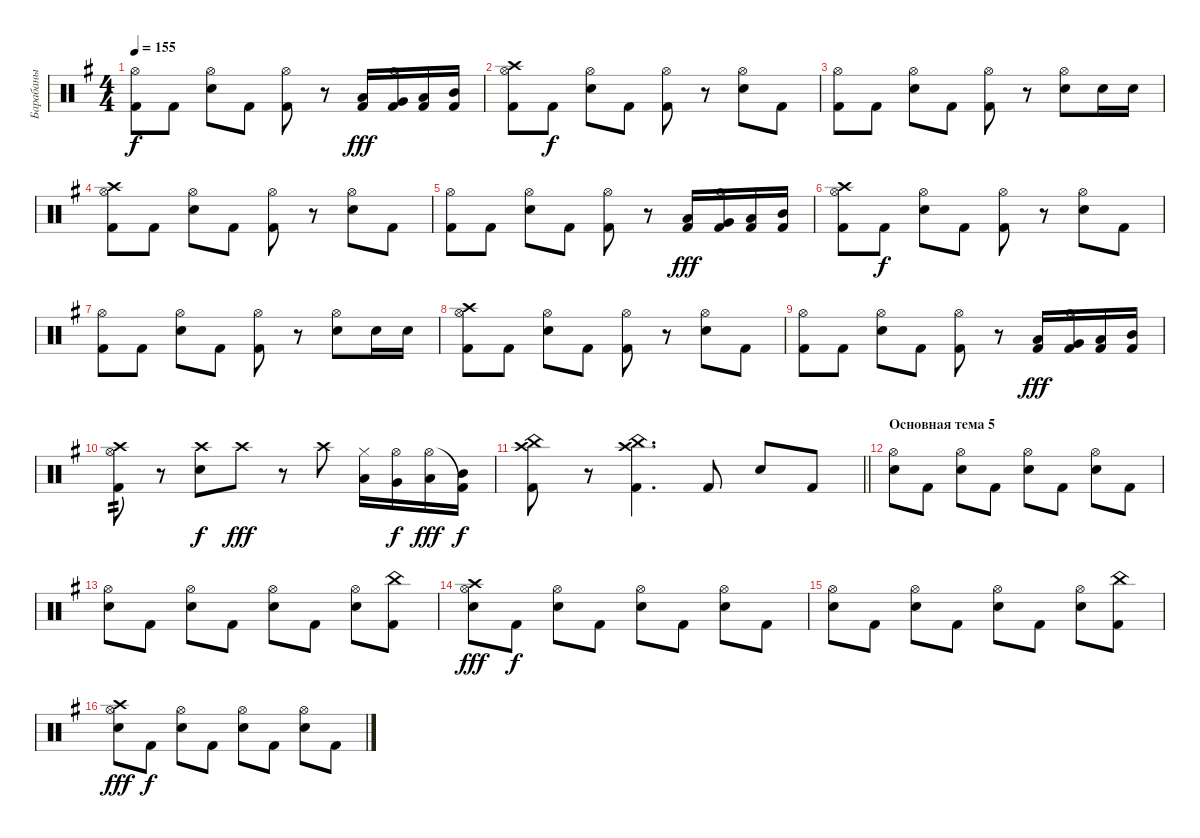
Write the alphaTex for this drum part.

\track ("Барабаны" "Барабаны") {instrument percussion}
\staff {score}
\articulation defaults
\ts (4 4)
\tempo 155
\clef neutral
\ks eminor
("Kick (hit) 2" "Hi-Hat (open)").8{dy f} "Kick (hit) 2".8 ("Electric Snare (hit)" "Hi-Hat (open)").8 "Kick (hit) 2".8 ("Kick (hit) 2" "Hi-Hat (open)").8 r.8 ("Low Floor Tom (hit)" "Kick (hit) 2").16{dy fff} ("Very Low Tom (hit)" "Hi-Hat (open)" "Kick (hit) 2").16 ("Low Tom (hit)" "Kick (hit) 2").16 ("Mid Tom (hit)" "Kick (hit) 2").16 |
("Kick (hit) 2" "Hi-Hat (open)" "Crash high (hit)").8 "Kick (hit) 2".8{dy f} ("Electric Snare (hit)" "Hi-Hat (open)").8 "Kick (hit) 2".8 ("Kick (hit) 2" "Hi-Hat (open)").8 r.8 ("Electric Snare (hit)" "Hi-Hat (open)").8 "Kick (hit) 2".8 |
("Kick (hit) 2" "Hi-Hat (open)").8 "Kick (hit) 2".8 ("Electric Snare (hit)" "Hi-Hat (open)").8 "Kick (hit) 2".8 ("Kick (hit) 2" "Hi-Hat (open)").8 r.8 ("Electric Snare (hit)" "Hi-Hat (open)").8 "Electric Snare (hit)".16 "Electric Snare (hit)".16 |
("Kick (hit) 2" "Hi-Hat (open)" "Crash high (hit)").8 "Kick (hit) 2".8 ("Electric Snare (hit)" "Hi-Hat (open)").8 "Kick (hit) 2".8 ("Kick (hit) 2" "Hi-Hat (open)").8 r.8 ("Electric Snare (hit)" "Hi-Hat (open)").8 "Kick (hit) 2".8 |
("Kick (hit) 2" "Hi-Hat (open)").8 "Kick (hit) 2".8 ("Electric Snare (hit)" "Hi-Hat (open)").8 "Kick (hit) 2".8 ("Kick (hit) 2" "Hi-Hat (open)").8 r.8 ("Low Floor Tom (hit)" "Kick (hit) 2").16{dy fff} ("Very Low Tom (hit)" "Hi-Hat (open)" "Kick (hit) 2").16 ("Low Tom (hit)" "Kick (hit) 2").16 ("Mid Tom (hit)" "Kick (hit) 2").16 |
("Kick (hit) 2" "Hi-Hat (open)" "Crash high (hit)").8 "Kick (hit) 2".8{dy f} ("Electric Snare (hit)" "Hi-Hat (open)").8 "Kick (hit) 2".8 ("Kick (hit) 2" "Hi-Hat (open)").8 r.8 ("Electric Snare (hit)" "Hi-Hat (open)").8 "Kick (hit) 2".8 |
("Kick (hit) 2" "Hi-Hat (open)").8 "Kick (hit) 2".8 ("Electric Snare (hit)" "Hi-Hat (open)").8 "Kick (hit) 2".8 ("Kick (hit) 2" "Hi-Hat (open)").8 r.8 ("Electric Snare (hit)" "Hi-Hat (open)").8 "Electric Snare (hit)".16 "Electric Snare (hit)".16 |
("Kick (hit) 2" "Hi-Hat (open)" "Crash high (hit)").8 "Kick (hit) 2".8 ("Electric Snare (hit)" "Hi-Hat (open)").8 "Kick (hit) 2".8 ("Kick (hit) 2" "Hi-Hat (open)").8 r.8 ("Electric Snare (hit)" "Hi-Hat (open)").8 "Kick (hit) 2".8 |
("Kick (hit) 2" "Hi-Hat (open)").8 "Kick (hit) 2".8 ("Electric Snare (hit)" "Hi-Hat (open)").8 "Kick (hit) 2".8 ("Kick (hit) 2" "Hi-Hat (open)").8 r.8 ("Low Floor Tom (hit)" "Kick (hit) 2").16{dy fff} ("Very Low Tom (hit)" "Hi-Hat (open)" "Kick (hit) 2").16 ("Low Tom (hit)" "Kick (hit) 2").16 ("Mid Tom (hit)" "Kick (hit) 2").16 |
("Hi-Hat (open)" "Kick (hit) 2" "Crash high (hit)").8{tp 2} r.8 ("Electric Snare (hit)" "Crash high (hit)").8{dy f} "Crash high (hit)".8{dy fff} r.8 "Crash high (hit)".8 ("Low Floor Tom (hit)" "Hi-Hat (closed)").16 ("Very Low Tom (hit)" "Hi-Hat (open)").16{dy f} ("Low Tom (hit)" "Hi-Hat (open)").16{dy fff} ("Mid Tom (hit)" "Kick (hit) 2"{t}).16{dy f} |
\barLineRight lightlight
("China (hit)" "Crash high (hit)" "Kick (hit) 2").8 r.8 ("China (hit)" "Crash high (hit)" "Kick (hit) 2").4{d} "Kick (hit) 2".8 "Electric Snare (hit)".8 "Kick (hit) 2".8 |
\section ("" "Основная тема 5")
("Electric Snare (hit)" "Hi-Hat (open)").8 "Kick (hit) 2".8 ("Electric Snare (hit)" "Hi-Hat (open)").8 "Kick (hit) 2".8 ("Electric Snare (hit)" "Hi-Hat (open)").8 "Kick (hit) 2".8 ("Electric Snare (hit)" "Hi-Hat (open)").8 "Kick (hit) 2".8 |
("Electric Snare (hit)" "Hi-Hat (open)").8 "Kick (hit) 2".8 ("Electric Snare (hit)" "Hi-Hat (open)").8 "Kick (hit) 2".8 ("Electric Snare (hit)" "Hi-Hat (open)").8 "Kick (hit) 2".8 ("Electric Snare (hit)" "Hi-Hat (open)").8 ("Kick (hit) 2" "China (hit)").8 |
("Electric Snare (hit)" "Hi-Hat (open)" "Crash high (hit)").8{dy fff} "Kick (hit) 2".8{dy f} ("Electric Snare (hit)" "Hi-Hat (open)").8 "Kick (hit) 2".8 ("Electric Snare (hit)" "Hi-Hat (open)").8 "Kick (hit) 2".8 ("Electric Snare (hit)" "Hi-Hat (open)").8 "Kick (hit) 2".8 |
("Electric Snare (hit)" "Hi-Hat (open)").8 "Kick (hit) 2".8 ("Electric Snare (hit)" "Hi-Hat (open)").8 "Kick (hit) 2".8 ("Electric Snare (hit)" "Hi-Hat (open)").8 "Kick (hit) 2".8 ("Electric Snare (hit)" "Hi-Hat (open)").8 ("Kick (hit) 2" "China (hit)").8 |
("Electric Snare (hit)" "Hi-Hat (open)" "Crash high (hit)").8{dy fff} "Kick (hit) 2".8{dy f} ("Electric Snare (hit)" "Hi-Hat (open)").8 "Kick (hit) 2".8 ("Electric Snare (hit)" "Hi-Hat (open)").8 "Kick (hit) 2".8 ("Electric Snare (hit)" "Hi-Hat (open)").8 "Kick (hit) 2".8
